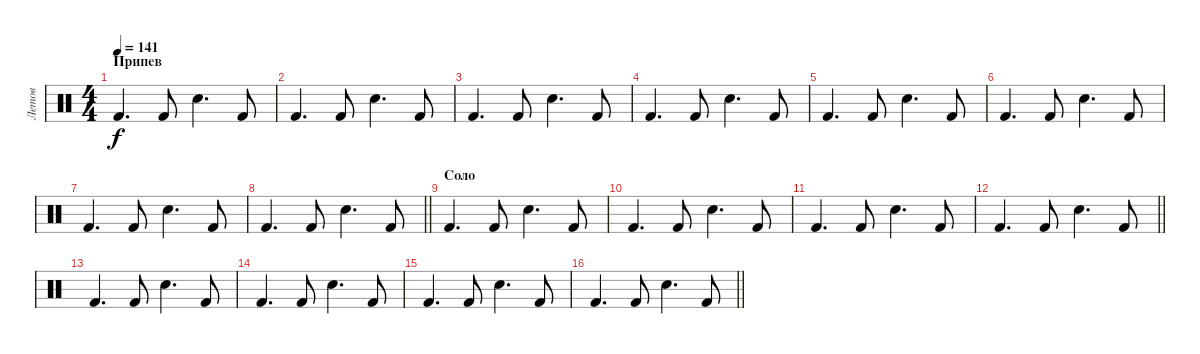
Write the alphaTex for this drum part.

\track ("Летов" "Летов") {instrument percussion}
\staff {score}
\articulation defaults
\ts (4 4)
\section ("" "Припев")
\tempo 141
\clef neutral
\ks c "Kick (hit) 2".4{d dy f} "Kick (hit) 2".8 "Electric Snare (hit)".4{d} "Kick (hit) 2".8
|
"Kick (hit) 2".4{d} "Kick (hit) 2".8 "Electric Snare (hit)".4{d} "Kick (hit) 2".8 |
"Kick (hit) 2".4{d} "Kick (hit) 2".8 "Electric Snare (hit)".4{d} "Kick (hit) 2".8 |
"Kick (hit) 2".4{d} "Kick (hit) 2".8 "Electric Snare (hit)".4{d} "Kick (hit) 2".8 |
"Kick (hit) 2".4{d} "Kick (hit) 2".8 "Electric Snare (hit)".4{d} "Kick (hit) 2".8 |
"Kick (hit) 2".4{d} "Kick (hit) 2".8 "Electric Snare (hit)".4{d} "Kick (hit) 2".8 |
"Kick (hit) 2".4{d} "Kick (hit) 2".8 "Electric Snare (hit)".4{d} "Kick (hit) 2".8 |
\barLineRight lightlight "Kick (hit) 2".4{d} "Kick (hit) 2".8 "Electric Snare (hit)".4{d} "Kick (hit) 2".8
|
\section ("" "Соло")
"Kick (hit) 2".4{d} "Kick (hit) 2".8 "Electric Snare (hit)".4{d} "Kick (hit) 2".8 |
"Kick (hit) 2".4{d} "Kick (hit) 2".8 "Electric Snare (hit)".4{d} "Kick (hit) 2".8 |
"Kick (hit) 2".4{d} "Kick (hit) 2".8 "Electric Snare (hit)".4{d} "Kick (hit) 2".8 |
\barLineRight lightlight "Kick (hit) 2".4{d} "Kick (hit) 2".8 "Electric Snare (hit)".4{d} "Kick (hit) 2".8
|
"Kick (hit) 2".4{d} "Kick (hit) 2".8 "Electric Snare (hit)".4{d} "Kick (hit) 2".8 |
"Kick (hit) 2".4{d} "Kick (hit) 2".8 "Electric Snare (hit)".4{d} "Kick (hit) 2".8 |
"Kick (hit) 2".4{d} "Kick (hit) 2".8 "Electric Snare (hit)".4{d} "Kick (hit) 2".8 |
\barLineRight lightlight "Kick (hit) 2".4{d} "Kick (hit) 2".8 "Electric Snare (hit)".4{d} "Kick (hit) 2".8
